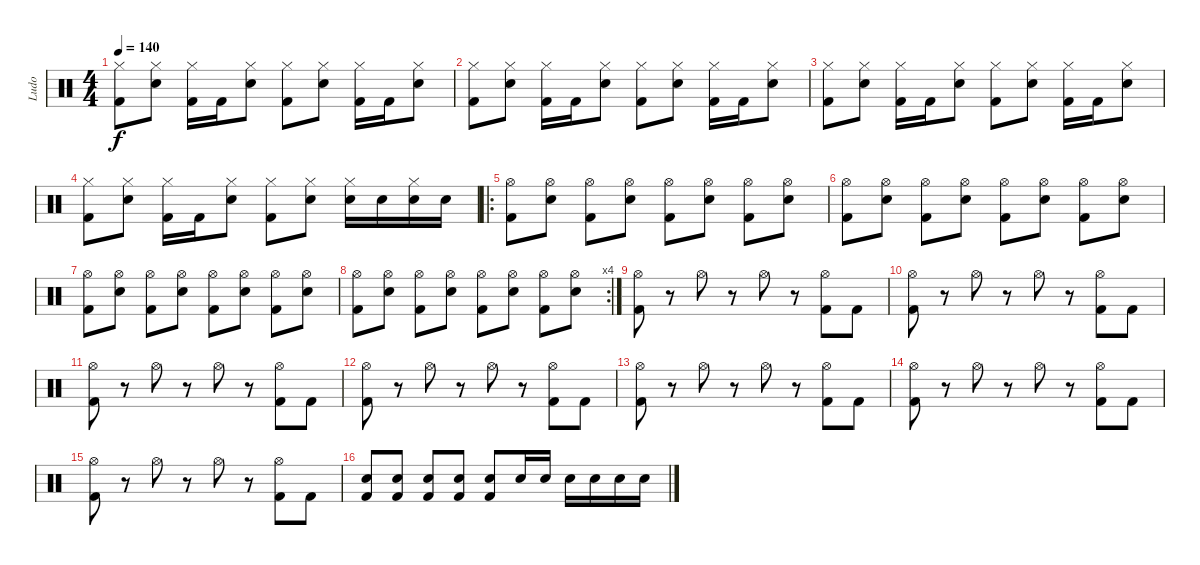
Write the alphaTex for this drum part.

\track ("Ludo" "Ludo") {instrument percussion}
\staff {score}
\articulation defaults
\ts (4 4)
\tempo 140
\clef neutral
\ks c
("Hi-Hat (closed)" "Kick (hit) 2").8{dy f} ("Hi-Hat (closed)" "Electric Snare (hit)").8 ("Hi-Hat (closed)" "Kick (hit) 2").16 "Kick (hit) 2".16 ("Hi-Hat (closed)" "Electric Snare (hit)").8 ("Hi-Hat (closed)" "Kick (hit) 2").8 ("Hi-Hat (closed)" "Electric Snare (hit)").8 ("Hi-Hat (closed)" "Kick (hit) 2").16 "Kick (hit) 2".16 ("Hi-Hat (closed)" "Electric Snare (hit)").8 |
("Hi-Hat (closed)" "Kick (hit) 2").8 ("Hi-Hat (closed)" "Electric Snare (hit)").8 ("Hi-Hat (closed)" "Kick (hit) 2").16 "Kick (hit) 2".16 ("Hi-Hat (closed)" "Electric Snare (hit)").8 ("Hi-Hat (closed)" "Kick (hit) 2").8 ("Hi-Hat (closed)" "Electric Snare (hit)").8 ("Hi-Hat (closed)" "Kick (hit) 2").16 "Kick (hit) 2".16 ("Hi-Hat (closed)" "Electric Snare (hit)").8 |
("Hi-Hat (closed)" "Kick (hit) 2").8 ("Hi-Hat (closed)" "Electric Snare (hit)").8 ("Hi-Hat (closed)" "Kick (hit) 2").16 "Kick (hit) 2".16 ("Hi-Hat (closed)" "Electric Snare (hit)").8 ("Hi-Hat (closed)" "Kick (hit) 2").8 ("Hi-Hat (closed)" "Electric Snare (hit)").8 ("Hi-Hat (closed)" "Kick (hit) 2").16 "Kick (hit) 2".16 ("Hi-Hat (closed)" "Electric Snare (hit)").8 |
("Hi-Hat (closed)" "Kick (hit) 2").8 ("Hi-Hat (closed)" "Electric Snare (hit)").8 ("Hi-Hat (closed)" "Kick (hit) 2").16 "Kick (hit) 2".16 ("Hi-Hat (closed)" "Electric Snare (hit)").8 ("Hi-Hat (closed)" "Kick (hit) 2").8 ("Hi-Hat (closed)" "Electric Snare (hit)").8 ("Hi-Hat (closed)" "Electric Snare (hit)").16 "Electric Snare (hit)".16 ("Hi-Hat (closed)" "Electric Snare (hit)").16 "Electric Snare (hit)".16 |
\ro
("Hi-Hat (open)" "Kick (hit) 2").8 ("Hi-Hat (open)" "Electric Snare (hit)").8 ("Hi-Hat (open)" "Kick (hit) 2").8 ("Hi-Hat (open)" "Electric Snare (hit)").8 ("Hi-Hat (open)" "Kick (hit) 2").8 ("Hi-Hat (open)" "Electric Snare (hit)").8 ("Hi-Hat (open)" "Kick (hit) 2").8 ("Hi-Hat (open)" "Electric Snare (hit)").8 |
("Hi-Hat (open)" "Kick (hit) 2").8 ("Hi-Hat (open)" "Electric Snare (hit)").8 ("Hi-Hat (open)" "Kick (hit) 2").8 ("Hi-Hat (open)" "Electric Snare (hit)").8 ("Hi-Hat (open)" "Kick (hit) 2").8 ("Hi-Hat (open)" "Electric Snare (hit)").8 ("Hi-Hat (open)" "Kick (hit) 2").8 ("Hi-Hat (open)" "Electric Snare (hit)").8 |
("Hi-Hat (open)" "Kick (hit) 2").8 ("Hi-Hat (open)" "Electric Snare (hit)").8 ("Hi-Hat (open)" "Kick (hit) 2").8 ("Hi-Hat (open)" "Electric Snare (hit)").8 ("Hi-Hat (open)" "Kick (hit) 2").8 ("Hi-Hat (open)" "Electric Snare (hit)").8 ("Hi-Hat (open)" "Kick (hit) 2").8 ("Hi-Hat (open)" "Electric Snare (hit)").8 |
\rc 4
("Hi-Hat (open)" "Kick (hit) 2").8 ("Hi-Hat (open)" "Electric Snare (hit)").8 ("Hi-Hat (open)" "Kick (hit) 2").8 ("Hi-Hat (open)" "Electric Snare (hit)").8 ("Hi-Hat (open)" "Kick (hit) 2").8 ("Hi-Hat (open)" "Electric Snare (hit)").8 ("Hi-Hat (open)" "Kick (hit) 2").8 ("Hi-Hat (open)" "Electric Snare (hit)").8 |
("Hi-Hat (open)" "Kick (hit) 2").8 r.8 "Hi-Hat (open)".8 r.8 "Hi-Hat (open)".8 r.8 ("Hi-Hat (open)" "Kick (hit) 2").8 "Kick (hit) 2".8 |
("Hi-Hat (open)" "Kick (hit) 2").8 r.8 "Hi-Hat (open)".8 r.8 "Hi-Hat (open)".8 r.8 ("Hi-Hat (open)" "Kick (hit) 2").8 "Kick (hit) 2".8 |
("Hi-Hat (open)" "Kick (hit) 2").8 r.8 "Hi-Hat (open)".8 r.8 "Hi-Hat (open)".8 r.8 ("Hi-Hat (open)" "Kick (hit) 2").8 "Kick (hit) 2".8 |
("Hi-Hat (open)" "Kick (hit) 2").8 r.8 "Hi-Hat (open)".8 r.8 "Hi-Hat (open)".8 r.8 ("Hi-Hat (open)" "Kick (hit) 2").8 "Kick (hit) 2".8 |
("Hi-Hat (open)" "Kick (hit) 2").8 r.8 "Hi-Hat (open)".8 r.8 "Hi-Hat (open)".8 r.8 ("Hi-Hat (open)" "Kick (hit) 2").8 "Kick (hit) 2".8 |
("Hi-Hat (open)" "Kick (hit) 2").8 r.8 "Hi-Hat (open)".8 r.8 "Hi-Hat (open)".8 r.8 ("Hi-Hat (open)" "Kick (hit) 2").8 "Kick (hit) 2".8 |
("Hi-Hat (open)" "Kick (hit) 2").8 r.8 "Hi-Hat (open)".8 r.8 "Hi-Hat (open)".8 r.8 ("Hi-Hat (open)" "Kick (hit) 2").8 "Kick (hit) 2".8 |
("Electric Snare (hit)" "Kick (hit) 2").8 ("Electric Snare (hit)" "Kick (hit) 2").8 ("Electric Snare (hit)" "Kick (hit) 2").8 ("Electric Snare (hit)" "Kick (hit) 2").8 ("Electric Snare (hit)" "Kick (hit) 2").8 "Electric Snare (hit)".16 "Electric Snare (hit)".16 "Electric Snare (hit)".16 "Electric Snare (hit)".16 "Electric Snare (hit)".16 "Electric Snare (hit)".16
